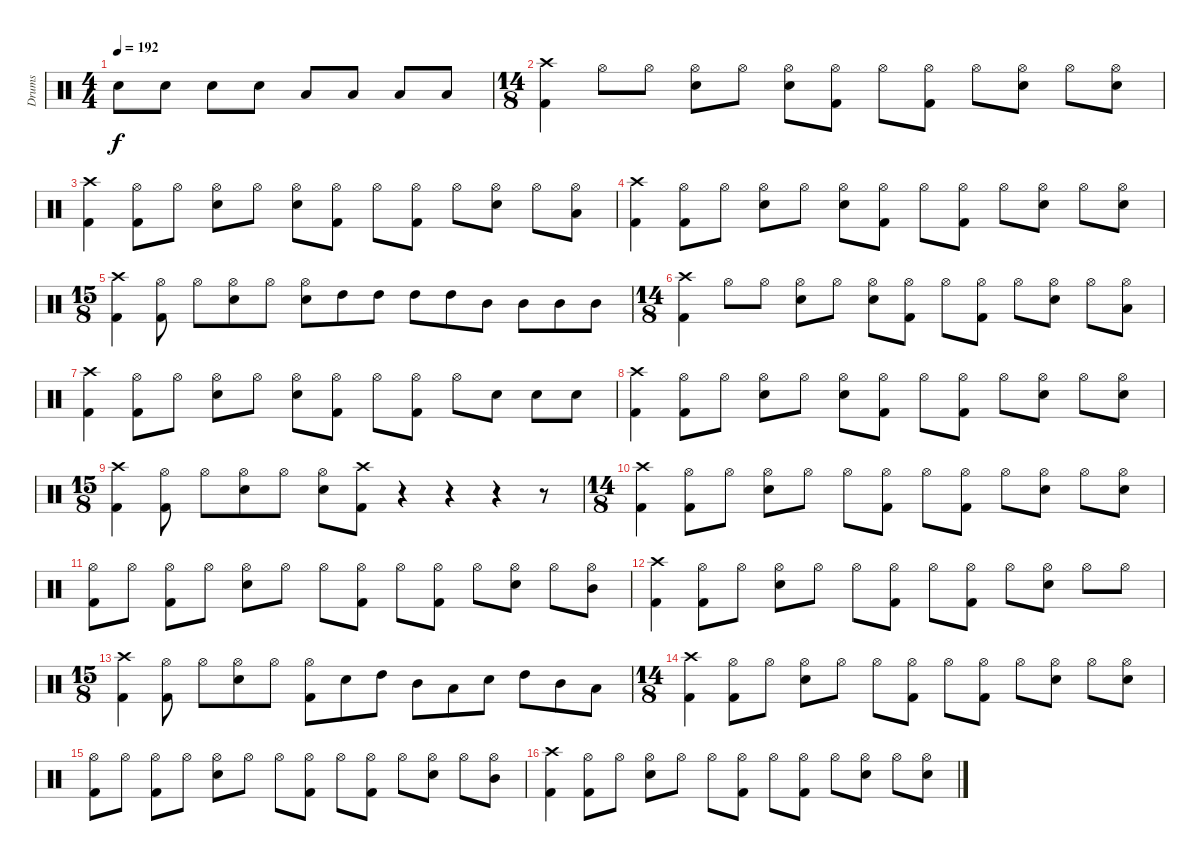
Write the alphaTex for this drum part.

\track ("Drums" "Drums") {instrument percussion}
\staff {score}
\articulation defaults
\ts (4 4)
\tempo 192
\clef neutral
\ks c "Snare (hit) 2".8{dy f} "Snare (hit) 2".8 "Snare (hit) 2".8 "Snare (hit) 2".8 "Low Tom (hit)".8 "Low Tom (hit)".8 "Low Tom (hit)".8 "Low Tom (hit)".8
|
\ts (14 8)
("Crash high (hit)" "Kick (hit) 2").4 "Hi-Hat (open)".8 "Hi-Hat (open)".8 ("Hi-Hat (open)" "Snare (hit) 2").8 "Hi-Hat (open)".8 ("Hi-Hat (open)" "Snare (hit) 2").8 ("Hi-Hat (open)" "Kick (hit) 2").8 "Hi-Hat (open)".8 ("Hi-Hat (open)" "Kick (hit) 2").8 "Hi-Hat (open)".8 ("Hi-Hat (open)" "Snare (hit) 2").8 "Hi-Hat (open)".8 ("Hi-Hat (open)" "Snare (hit) 2").8 |
("Crash high (hit)" "Kick (hit) 2").4 ("Hi-Hat (open)" "Kick (hit) 2").8 "Hi-Hat (open)".8 ("Hi-Hat (open)" "Snare (hit) 2").8 "Hi-Hat (open)".8 ("Hi-Hat (open)" "Snare (hit) 2").8 ("Hi-Hat (open)" "Kick (hit) 2").8 "Hi-Hat (open)".8 ("Hi-Hat (open)" "Kick (hit) 2").8 "Hi-Hat (open)".8 ("Hi-Hat (open)" "Snare (hit) 2").8 "Hi-Hat (open)".8 ("Hi-Hat (open)" "Low Tom (hit)").8 |
("Crash high (hit)" "Kick (hit) 2").4 ("Hi-Hat (open)" "Kick (hit) 2").8 "Hi-Hat (open)".8 ("Hi-Hat (open)" "Snare (hit) 2").8 "Hi-Hat (open)".8 ("Hi-Hat (open)" "Snare (hit) 2").8 ("Hi-Hat (open)" "Kick (hit) 2").8 "Hi-Hat (open)".8 ("Hi-Hat (open)" "Kick (hit) 2").8 "Hi-Hat (open)".8 ("Hi-Hat (open)" "Snare (hit) 2").8 "Hi-Hat (open)".8 ("Hi-Hat (open)" "Snare (hit) 2").8 |
\ts (15 8)
("Crash high (hit)" "Kick (hit) 2").4 ("Hi-Hat (open)" "Kick (hit) 2").8 "Hi-Hat (open)".8 ("Hi-Hat (open)" "Snare (hit) 2").8 "Hi-Hat (open)".8 ("Hi-Hat (open)" "Snare (hit) 2").8 "High Tom (hit)".8 "High Tom (hit)".8 "High Tom (hit)".8 "High Tom (hit)".8 "Mid Tom (hit)".8 "Mid Tom (hit)".8 "Mid Tom (hit)".8 "Mid Tom (hit)".8 |
\ts (14 8)
("Crash high (hit)" "Kick (hit) 2").4 "Hi-Hat (open)".8 "Hi-Hat (open)".8 ("Hi-Hat (open)" "Snare (hit) 2").8 "Hi-Hat (open)".8 ("Hi-Hat (open)" "Snare (hit) 2").8 ("Hi-Hat (open)" "Kick (hit) 2").8 "Hi-Hat (open)".8 ("Hi-Hat (open)" "Kick (hit) 2").8 "Hi-Hat (open)".8 ("Hi-Hat (open)" "Snare (hit) 2").8 "Hi-Hat (open)".8 ("Hi-Hat (open)" "Low Tom (hit)").8 |
("Crash high (hit)" "Kick (hit) 2").4 ("Hi-Hat (open)" "Kick (hit) 2").8 "Hi-Hat (open)".8 ("Hi-Hat (open)" "Snare (hit) 2").8 "Hi-Hat (open)".8 ("Hi-Hat (open)" "Snare (hit) 2").8 ("Hi-Hat (open)" "Kick (hit) 2").8 "Hi-Hat (open)".8 ("Hi-Hat (open)" "Kick (hit) 2").8 "Hi-Hat (open)".8 "Snare (hit) 2".8 "Snare (hit) 2".8 "Snare (hit) 2".8 |
("Crash high (hit)" "Kick (hit) 2").4 ("Hi-Hat (open)" "Kick (hit) 2").8 "Hi-Hat (open)".8 ("Hi-Hat (open)" "Snare (hit) 2").8 "Hi-Hat (open)".8 ("Hi-Hat (open)" "Snare (hit) 2").8 ("Hi-Hat (open)" "Kick (hit) 2").8 "Hi-Hat (open)".8 ("Hi-Hat (open)" "Kick (hit) 2").8 "Hi-Hat (open)".8 ("Hi-Hat (open)" "Snare (hit) 2").8 "Hi-Hat (open)".8 ("Hi-Hat (open)" "Snare (hit) 2").8 |
\ts (15 8)
("Crash high (hit)" "Kick (hit) 2").4 ("Hi-Hat (open)" "Kick (hit) 2").8 "Hi-Hat (open)".8 ("Hi-Hat (open)" "Snare (hit) 2").8 "Hi-Hat (open)".8 ("Hi-Hat (open)" "Snare (hit) 2").8 ("Crash high (hit)" "Kick (hit) 2").8 r.4 r.4 r.4 r.8 |
\ts (14 8)
("Crash high (hit)" "Kick (hit) 2").4 ("Hi-Hat (open)" "Kick (hit) 2").8 "Hi-Hat (open)".8 ("Hi-Hat (open)" "Snare (hit) 2").8 "Hi-Hat (open)".8 "Hi-Hat (open)".8 ("Hi-Hat (open)" "Kick (hit) 2").8 "Hi-Hat (open)".8 ("Hi-Hat (open)" "Kick (hit) 2").8 "Hi-Hat (open)".8 ("Hi-Hat (open)" "Snare (hit) 2").8 "Hi-Hat (open)".8 ("Hi-Hat (open)" "Snare (hit) 2").8 |
("Hi-Hat (open)" "Kick (hit) 2").8 "Hi-Hat (open)".8 ("Hi-Hat (open)" "Kick (hit) 2").8 "Hi-Hat (open)".8 ("Hi-Hat (open)" "Snare (hit) 2").8 "Hi-Hat (open)".8 "Hi-Hat (open)".8 ("Hi-Hat (open)" "Kick (hit) 2").8 "Hi-Hat (open)".8 ("Hi-Hat (open)" "Kick (hit) 2").8 "Hi-Hat (open)".8 ("Hi-Hat (open)" "Snare (hit) 2").8 "Hi-Hat (open)".8 ("Hi-Hat (open)" "Mid Tom (hit)").8 |
("Crash high (hit)" "Kick (hit) 2").4 ("Hi-Hat (open)" "Kick (hit) 2").8 "Hi-Hat (open)".8 ("Hi-Hat (open)" "Snare (hit) 2").8 "Hi-Hat (open)".8 "Hi-Hat (open)".8 ("Hi-Hat (open)" "Kick (hit) 2").8 "Hi-Hat (open)".8 ("Hi-Hat (open)" "Kick (hit) 2").8 "Hi-Hat (open)".8 ("Hi-Hat (open)" "Snare (hit) 2").8 "Hi-Hat (open)".8 "Hi-Hat (open)".8 |
\ts (15 8)
("Crash high (hit)" "Kick (hit) 2").4 ("Hi-Hat (open)" "Kick (hit) 2").8 "Hi-Hat (open)".8 ("Hi-Hat (open)" "Snare (hit) 2").8 "Hi-Hat (open)".8 ("Hi-Hat (open)" "Kick (hit) 2").8 "Snare (hit) 2".8 "High Tom (hit)".8 "Mid Tom (hit)".8 "Low Tom (hit)".8 "Snare (hit) 2".8 "High Tom (hit)".8 "Mid Tom (hit)".8 "Low Tom (hit)".8 |
\ts (14 8)
("Crash high (hit)" "Kick (hit) 2").4 ("Hi-Hat (open)" "Kick (hit) 2").8 "Hi-Hat (open)".8 ("Hi-Hat (open)" "Snare (hit) 2").8 "Hi-Hat (open)".8 "Hi-Hat (open)".8 ("Hi-Hat (open)" "Kick (hit) 2").8 "Hi-Hat (open)".8 ("Hi-Hat (open)" "Kick (hit) 2").8 "Hi-Hat (open)".8 ("Hi-Hat (open)" "Snare (hit) 2").8 "Hi-Hat (open)".8 ("Hi-Hat (open)" "Snare (hit) 2").8 |
("Hi-Hat (open)" "Kick (hit) 2").8 "Hi-Hat (open)".8 ("Hi-Hat (open)" "Kick (hit) 2").8 "Hi-Hat (open)".8 ("Hi-Hat (open)" "Snare (hit) 2").8 "Hi-Hat (open)".8 "Hi-Hat (open)".8 ("Hi-Hat (open)" "Kick (hit) 2").8 "Hi-Hat (open)".8 ("Hi-Hat (open)" "Kick (hit) 2").8 "Hi-Hat (open)".8 ("Hi-Hat (open)" "Snare (hit) 2").8 "Hi-Hat (open)".8 ("Hi-Hat (open)" "Mid Tom (hit)").8 |
("Crash high (hit)" "Kick (hit) 2").4 ("Hi-Hat (open)" "Kick (hit) 2").8 "Hi-Hat (open)".8 ("Hi-Hat (open)" "Snare (hit) 2").8 "Hi-Hat (open)".8 "Hi-Hat (open)".8 ("Hi-Hat (open)" "Kick (hit) 2").8 "Hi-Hat (open)".8 ("Hi-Hat (open)" "Kick (hit) 2").8 "Hi-Hat (open)".8 ("Hi-Hat (open)" "Snare (hit) 2").8 "Hi-Hat (open)".8 ("Hi-Hat (open)" "Snare (hit) 2").8
